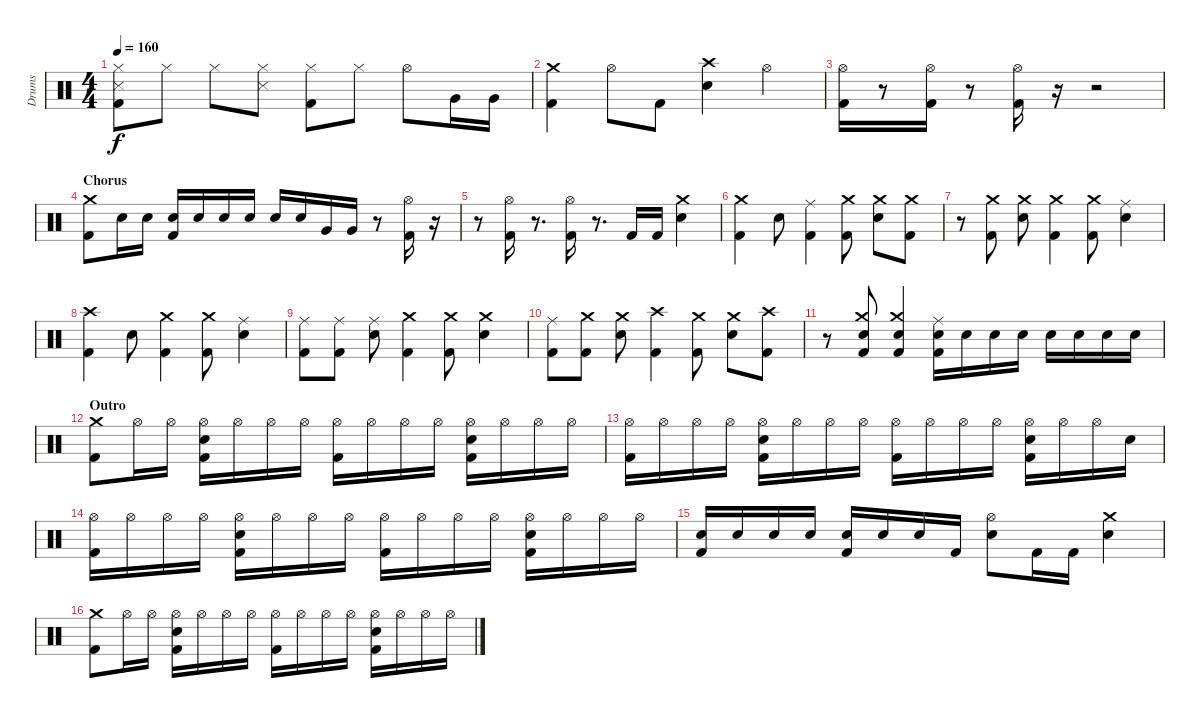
\track ("Drums" "Drums") {instrument percussion}
\staff {score}
\articulation defaults
\ts (4 4)
\tempo 160
\clef neutral
\ks c
("Hi-Hat (closed)" "Snare (side stick) 3" "Kick (hit) 2").8{dy f} "Hi-Hat (closed)".8 "Hi-Hat (closed)".8 ("Hi-Hat (closed)" "Snare (side stick) 3").8 ("Hi-Hat (closed)" "Kick (hit) 2").8 "Hi-Hat (closed)".8 "Hi-Hat (open)".8 "Very Low Tom (hit)".16 "Very Low Tom (hit)".16 |
("Crash medium (hit)" "Kick (hit) 2").4 "Hi-Hat (open)".8 "Kick (hit) 2".8 ("Crash high (hit)" "Snare (hit) 2").4 "Hi-Hat (open)".4 |
("Hi-Hat (open)" "Kick (hit) 2").16 r.8 ("Hi-Hat (open)" "Kick (hit) 2").16 r.8 ("Hi-Hat (open)" "Kick (hit) 2").16 r.16 r.2 |
\section ("" "Chorus")
("Crash medium (hit)" "Kick (hit) 2").8 "Snare (hit) 2".16 "Snare (hit) 2".16 ("Snare (hit) 2" "Kick (hit) 2").16 "Snare (hit) 2".16 "Snare (hit) 2".16 "Snare (hit) 2".16 "Snare (hit) 2".16 "Snare (hit) 2".16 "Very Low Tom (hit)".16 "Very Low Tom (hit)".16 r.8 ("Hi-Hat (open)" "Kick (hit) 2").16 r.16 |
r.8 ("Hi-Hat (open)" "Kick (hit) 2").16 r.8{d} ("Hi-Hat (open)" "Kick (hit) 2").16 r.8{d} "Kick (hit) 2".16 "Kick (hit) 2".16 ("Crash medium (hit)" "Snare (hit) 2").4 |
("Crash medium (hit)" "Kick (hit) 2").4 "Snare (hit) 2".8 ("Ride (middle)" "Kick (hit) 2").4 ("Crash medium (hit)" "Kick (hit) 2").8 ("Crash medium (hit)" "Snare (hit) 2").8 ("Crash medium (hit)" "Kick (hit) 2").8 |
r.8 ("Crash medium (hit)" "Kick (hit) 2").8 ("Crash medium (hit)" "Snare (hit) 2").8 ("Crash medium (hit)" "Kick (hit) 2").4 ("Crash medium (hit)" "Kick (hit) 2").8 ("Ride (middle)" "Snare (hit) 2").4 |
("Crash high (hit)" "Kick (hit) 2").4 "Snare (hit) 2".8 ("Crash medium (hit)" "Kick (hit) 2").4 ("Crash medium (hit)" "Kick (hit) 2").8 ("Ride (middle)" "Snare (hit) 2").4 |
("Ride (middle)" "Kick (hit) 2").8 ("Ride (middle)" "Kick (hit) 2").8 ("Ride (middle)" "Snare (hit) 2").8 ("Crash medium (hit)" "Kick (hit) 2").4 ("Crash medium (hit)" "Kick (hit) 2").8 ("Crash medium (hit)" "Snare (hit) 2").4 |
("Ride (middle)" "Kick (hit) 2").8 ("Crash medium (hit)" "Kick (hit) 2").8 ("Crash medium (hit)" "Snare (hit) 2").8 ("Crash high (hit)" "Kick (hit) 2").4 ("Crash medium (hit)" "Kick (hit) 2").8 ("Crash medium (hit)" "Snare (hit) 2").8 ("Crash high (hit)" "Kick (hit) 2").8 |
r.8 ("Crash medium (hit)" "Snare (hit) 2" "Kick (hit) 2").8 ("Crash medium (hit)" "Snare (hit) 2" "Kick (hit) 2").4 ("Ride (middle)" "Snare (hit) 2" "Kick (hit) 2").16 "Snare (hit) 2".16 "Snare (hit) 2".16 "Snare (hit) 2".16 "Snare (hit) 2".16 "Snare (hit) 2".16 "Snare (hit) 2".16 "Snare (hit) 2".16 |
\section ("" "Outro")
("Crash medium (hit)" "Kick (hit) 2").8 "Hi-Hat (open)".16 "Hi-Hat (open)".16 ("Hi-Hat (open)" "Snare (hit) 2" "Kick (hit) 2").16 "Hi-Hat (open)".16 "Hi-Hat (open)".16 "Hi-Hat (open)".16 ("Hi-Hat (open)" "Kick (hit) 2").16 "Hi-Hat (open)".16 "Hi-Hat (open)".16 "Hi-Hat (open)".16 ("Hi-Hat (open)" "Snare (hit) 2" "Kick (hit) 2").16 "Hi-Hat (open)".16 "Hi-Hat (open)".16 "Hi-Hat (open)".16 |
("Hi-Hat (open)" "Kick (hit) 2").16 "Hi-Hat (open)".16 "Hi-Hat (open)".16 "Hi-Hat (open)".16 ("Hi-Hat (open)" "Snare (hit) 2" "Kick (hit) 2").16 "Hi-Hat (open)".16 "Hi-Hat (open)".16 "Hi-Hat (open)".16 ("Hi-Hat (open)" "Kick (hit) 2").16 "Hi-Hat (open)".16 "Hi-Hat (open)".16 "Hi-Hat (open)".16 ("Hi-Hat (open)" "Snare (hit) 2" "Kick (hit) 2").16 "Hi-Hat (open)".16 "Hi-Hat (open)".16 "Snare (hit) 2".16 |
("Hi-Hat (open)" "Kick (hit) 2").16 "Hi-Hat (open)".16 "Hi-Hat (open)".16 "Hi-Hat (open)".16 ("Hi-Hat (open)" "Snare (hit) 2" "Kick (hit) 2").16 "Hi-Hat (open)".16 "Hi-Hat (open)".16 "Hi-Hat (open)".16 ("Hi-Hat (open)" "Kick (hit) 2").16 "Hi-Hat (open)".16 "Hi-Hat (open)".16 "Hi-Hat (open)".16 ("Hi-Hat (open)" "Snare (hit) 2" "Kick (hit) 2").16 "Hi-Hat (open)".16 "Hi-Hat (open)".16 "Hi-Hat (open)".16 |
("Snare (hit) 2" "Kick (hit) 2").16 "Snare (hit) 2".16 "Snare (hit) 2".16 "Snare (hit) 2".16 ("Snare (hit) 2" "Kick (hit) 2").16 "Snare (hit) 2".16 "Snare (hit) 2".16 "Kick (hit) 2".16 ("Hi-Hat (open)" "Snare (hit) 2").8 "Kick (hit) 2".16 "Kick (hit) 2".16 ("Crash medium (hit)" "Snare (hit) 2").4 |
("Crash medium (hit)" "Kick (hit) 2").8 "Hi-Hat (open)".16 "Hi-Hat (open)".16 ("Hi-Hat (open)" "Snare (hit) 2" "Kick (hit) 2").16 "Hi-Hat (open)".16 "Hi-Hat (open)".16 "Hi-Hat (open)".16 ("Hi-Hat (open)" "Kick (hit) 2").16 "Hi-Hat (open)".16 "Hi-Hat (open)".16 "Hi-Hat (open)".16 ("Hi-Hat (open)" "Snare (hit) 2" "Kick (hit) 2").16 "Hi-Hat (open)".16 "Hi-Hat (open)".16 "Hi-Hat (open)".16
